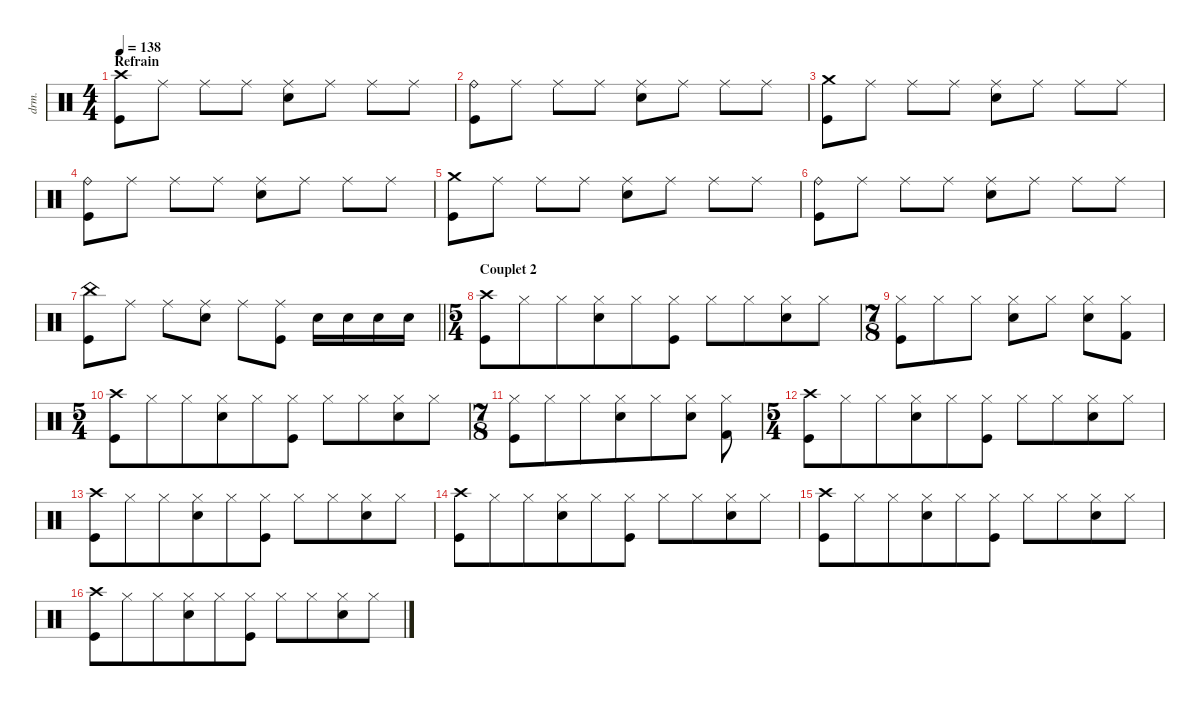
\defaultSystemsLayout 4
\hideDynamics
\bracketExtendMode nobrackets
\track ("Percussions" "drm.") {instrument percussion}
\staff {score}
\articulation defaults
\ts (4 4)
\beaming (8 2 2 2 2)
\section ("" "Refrain")
\tempo 138
\clef neutral
\ks aminor
("Crash high (hit)" "Kick (hit)").8{dy f} "Ride (middle)".8{dy mf} "Ride (middle)".8{dy f} "Ride (middle)".8{dy mf} ("Ride (middle)" "Snare (hit) 2").8{dy f} "Ride (middle)".8{dy mf} "Ride (middle)".8{dy f} "Ride (middle)".8{dy mf} |
("Ride (bell)" "Kick (hit)").8{dy f} "Ride (middle)".8{dy mf} "Ride (middle)".8{dy f} "Ride (middle)".8{dy mf} ("Ride (middle)" "Snare (hit) 2").8{dy f} "Ride (middle)".8{dy mf} "Ride (middle)".8{dy f} "Ride (middle)".8{dy mf} |
("Crash medium (hit)" "Kick (hit)").8{dy f} "Ride (middle)".8{dy mf} "Ride (middle)".8{dy f} "Ride (middle)".8{dy mf} ("Ride (middle)" "Snare (hit) 2").8{dy f} "Ride (middle)".8{dy mf} "Ride (middle)".8{dy f} "Ride (middle)".8{dy mf} |
("Ride (bell)" "Kick (hit)").8{dy f} "Ride (middle)".8{dy mf} "Ride (middle)".8{dy f} "Ride (middle)".8{dy mf} ("Ride (middle)" "Snare (hit) 2").8{dy f} "Ride (middle)".8{dy mf} "Ride (middle)".8{dy f} "Ride (middle)".8{dy mf} |
("Crash medium (hit)" "Kick (hit)").8{dy f} "Ride (middle)".8{dy mf} "Ride (middle)".8{dy f} "Ride (middle)".8{dy mf} ("Ride (middle)" "Snare (hit) 2").8{dy f} "Ride (middle)".8{dy mf} "Ride (middle)".8{dy f} "Ride (middle)".8{dy mf} |
("Ride (bell)" "Kick (hit)").8{dy f} "Ride (middle)".8{dy mf} "Ride (middle)".8{dy f} "Ride (middle)".8{dy mf} ("Ride (middle)" "Snare (hit) 2").8{dy f} "Ride (middle)".8{dy mf} "Ride (middle)".8{dy f} "Ride (middle)".8{dy mf} |
\barLineRight lightlight
("China (hit)" "Kick (hit)").8{dy mp} "Ride (middle)".8{dy mf} "Ride (middle)".8 ("Ride (middle)" "Snare (hit) 2").8{dy f} "Ride (middle)".8{dy mf} ("Ride (middle)" "Kick (hit)").8 "Snare (hit) 2".16{dy mp} "Snare (hit) 2".16{dy mf} "Snare (hit) 2".16 "Snare (hit) 2".16{dy f} |
\ts (5 4)
\beaming (8 6 4)
\section ("" "Couplet 2")
("Crash high (hit)" "Kick (hit)").8 "Hi-Hat (closed)".8 "Hi-Hat (closed)".8 ("Hi-Hat (closed)" "Snare (hit) 2").8 "Hi-Hat (closed)".8 ("Hi-Hat (closed)" "Kick (hit)").8 "Hi-Hat (closed)".8 "Hi-Hat (closed)".8 ("Hi-Hat (closed)" "Snare (hit) 2").8 "Hi-Hat (closed)".8 |
\ts (7 8)
\beaming (8 3 2 2)
("Hi-Hat (closed)" "Kick (hit)").8 "Hi-Hat (closed)".8 "Hi-Hat (closed)".8 ("Hi-Hat (closed)" "Snare (hit) 2").8 "Hi-Hat (closed)".8 ("Hi-Hat (closed)" "Snare (hit) 2").8 ("Hi-Hat (closed)" "Kick (hit) 2").8 |
\ts (5 4)
\beaming (8 6 4)
("Crash high (hit)" "Kick (hit)").8 "Hi-Hat (closed)".8 "Hi-Hat (closed)".8 ("Hi-Hat (closed)" "Snare (hit) 2").8 "Hi-Hat (closed)".8 ("Hi-Hat (closed)" "Kick (hit)").8 "Hi-Hat (closed)".8 "Hi-Hat (closed)".8 ("Hi-Hat (closed)" "Snare (hit) 2").8 "Hi-Hat (closed)".8 |
\ts (7 8)
\beaming (8 6 4)
("Hi-Hat (closed)" "Kick (hit)").8 "Hi-Hat (closed)".8 "Hi-Hat (closed)".8 ("Hi-Hat (closed)" "Snare (hit) 2").8 "Hi-Hat (closed)".8 ("Hi-Hat (closed)" "Snare (hit) 2").8 ("Hi-Hat (closed)" "Kick (hit) 2").8 |
\ts (5 4)
\beaming (8 6 4)
("Crash high (hit)" "Kick (hit)").8 "Hi-Hat (closed)".8 "Hi-Hat (closed)".8 ("Hi-Hat (closed)" "Snare (hit) 2").8 "Hi-Hat (closed)".8 ("Hi-Hat (closed)" "Kick (hit)").8 "Hi-Hat (closed)".8 "Hi-Hat (closed)".8 ("Hi-Hat (closed)" "Snare (hit) 2").8 "Hi-Hat (closed)".8 |
("Crash high (hit)" "Kick (hit)").8 "Hi-Hat (closed)".8 "Hi-Hat (closed)".8 ("Hi-Hat (closed)" "Snare (hit) 2").8 "Hi-Hat (closed)".8 ("Hi-Hat (closed)" "Kick (hit)").8 "Hi-Hat (closed)".8 "Hi-Hat (closed)".8 ("Hi-Hat (closed)" "Snare (hit) 2").8 "Hi-Hat (closed)".8 |
("Crash high (hit)" "Kick (hit)").8 "Hi-Hat (closed)".8 "Hi-Hat (closed)".8 ("Hi-Hat (closed)" "Snare (hit) 2").8 "Hi-Hat (closed)".8 ("Hi-Hat (closed)" "Kick (hit)").8 "Hi-Hat (closed)".8 "Hi-Hat (closed)".8 ("Hi-Hat (closed)" "Snare (hit) 2").8 "Hi-Hat (closed)".8 |
("Crash high (hit)" "Kick (hit)").8 "Hi-Hat (closed)".8 "Hi-Hat (closed)".8 ("Hi-Hat (closed)" "Snare (hit) 2").8 "Hi-Hat (closed)".8 ("Hi-Hat (closed)" "Kick (hit)").8 "Hi-Hat (closed)".8 "Hi-Hat (closed)".8 ("Hi-Hat (closed)" "Snare (hit) 2").8 "Hi-Hat (closed)".8 |
("Crash high (hit)" "Kick (hit)").8 "Hi-Hat (closed)".8 "Hi-Hat (closed)".8 ("Hi-Hat (closed)" "Snare (hit) 2").8 "Hi-Hat (closed)".8 ("Hi-Hat (closed)" "Kick (hit)").8 "Hi-Hat (closed)".8 "Hi-Hat (closed)".8 ("Hi-Hat (closed)" "Snare (hit) 2").8 "Hi-Hat (closed)".8
